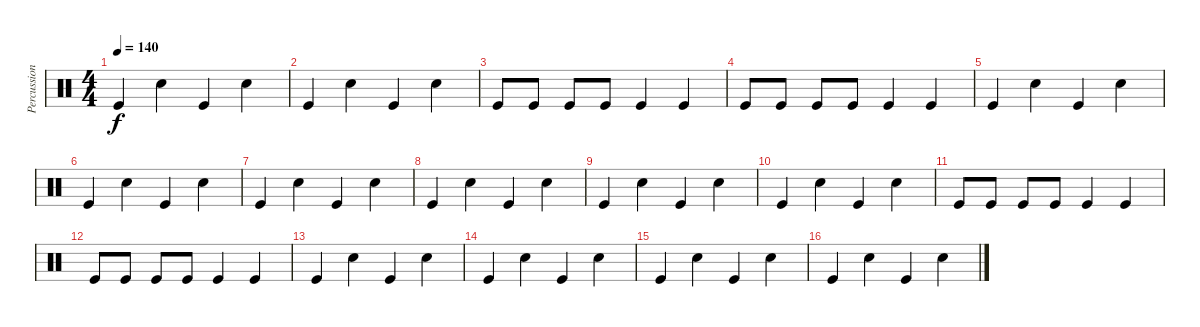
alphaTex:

\track ("Percussion" "Percussion") {instrument percussion}
\staff {score}
\articulation defaults
\ts (4 4)
\tempo 140
\clef neutral
\ks c "Kick (hit)".4{dy f} "Snare (hit) 2".4 "Kick (hit)".4 "Snare (hit) 2".4
|
"Kick (hit)".4 "Snare (hit) 2".4 "Kick (hit)".4 "Snare (hit) 2".4 |
"Kick (hit)".8 "Kick (hit)".8 "Kick (hit)".8 "Kick (hit)".8 "Kick (hit)".4 "Kick (hit)".4 |
"Kick (hit)".8 "Kick (hit)".8 "Kick (hit)".8 "Kick (hit)".8 "Kick (hit)".4 "Kick (hit)".4 |
"Kick (hit)".4 "Snare (hit) 2".4 "Kick (hit)".4 "Snare (hit) 2".4 |
"Kick (hit)".4 "Snare (hit) 2".4 "Kick (hit)".4 "Snare (hit) 2".4 |
"Kick (hit)".4 "Snare (hit) 2".4 "Kick (hit)".4 "Snare (hit) 2".4 |
"Kick (hit)".4 "Snare (hit) 2".4 "Kick (hit)".4 "Snare (hit) 2".4 |
"Kick (hit)".4 "Snare (hit) 2".4 "Kick (hit)".4 "Snare (hit) 2".4 |
"Kick (hit)".4 "Snare (hit) 2".4 "Kick (hit)".4 "Snare (hit) 2".4 |
"Kick (hit)".8 "Kick (hit)".8 "Kick (hit)".8 "Kick (hit)".8 "Kick (hit)".4 "Kick (hit)".4 |
"Kick (hit)".8 "Kick (hit)".8 "Kick (hit)".8 "Kick (hit)".8 "Kick (hit)".4 "Kick (hit)".4 |
"Kick (hit)".4 "Snare (hit) 2".4 "Kick (hit)".4 "Snare (hit) 2".4 |
"Kick (hit)".4 "Snare (hit) 2".4 "Kick (hit)".4 "Snare (hit) 2".4 |
"Kick (hit)".4 "Snare (hit) 2".4 "Kick (hit)".4 "Snare (hit) 2".4 |
"Kick (hit)".4 "Snare (hit) 2".4 "Kick (hit)".4 "Snare (hit) 2".4
